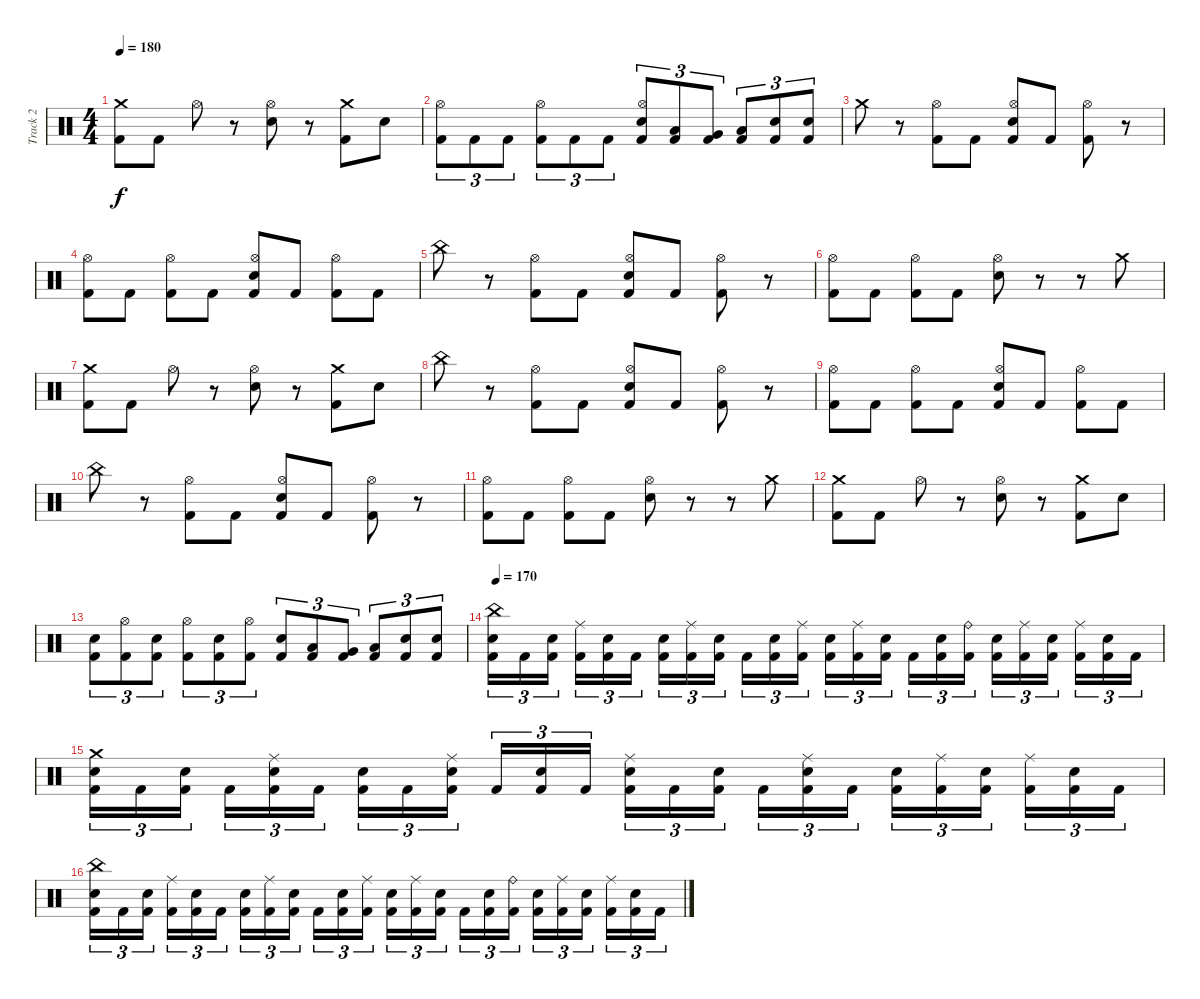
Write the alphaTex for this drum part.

\track ("Track 2" "Track 2") {instrument percussion}
\staff {score}
\articulation defaults
\ts (4 4)
\tempo 180
\clef neutral
\ks c
("Crash medium (hit)" "Kick (hit) 2").8{dy f} "Kick (hit) 2".8 "Hi-Hat (open)".8 r.8 ("Hi-Hat (open)" "Electric Snare (hit)").8 r.8 ("Crash medium (hit)" "Kick (hit) 2").8 "Electric Snare (hit)".8 |
("Hi-Hat (open)" "Kick (hit) 2").8{tu (3 2)} "Kick (hit) 2".8{tu (3 2)} "Kick (hit) 2".8{tu (3 2)} ("Hi-Hat (open)" "Kick (hit) 2").8{tu (3 2)} "Kick (hit) 2".8{tu (3 2)} "Kick (hit) 2".8{tu (3 2)} ("Hi-Hat (open)" "Electric Snare (hit)" "Kick (hit) 2").8{tu (3 2)} ("Low Tom (hit)" "Kick (hit) 2").8{tu (3 2)} ("Very Low Tom (hit)" "Kick (hit) 2").8{tu (3 2)} ("Low Floor Tom (hit)" "Kick (hit) 2").8{tu (3 2)} ("Electric Snare (hit)" "Kick (hit) 2").8{tu (3 2)} ("Electric Snare (hit)" "Kick (hit) 2").8{tu (3 2)} |
"Crash medium (hit)".8 r.8 ("Hi-Hat (open)" "Kick (hit) 2").8 "Kick (hit) 2".8 ("Hi-Hat (open)" "Electric Snare (hit)" "Kick (hit) 2").8 "Kick (hit) 2".8 ("Hi-Hat (open)" "Kick (hit) 2").8 r.8 |
("Hi-Hat (open)" "Kick (hit) 2").8 "Kick (hit) 2".8 ("Hi-Hat (open)" "Kick (hit) 2").8 "Kick (hit) 2".8 ("Hi-Hat (open)" "Electric Snare (hit)" "Kick (hit) 2").8 "Kick (hit) 2".8 ("Hi-Hat (open)" "Kick (hit) 2").8 "Kick (hit) 2".8 |
"China (hit)".8 r.8 ("Hi-Hat (open)" "Kick (hit) 2").8 "Kick (hit) 2".8 ("Hi-Hat (open)" "Electric Snare (hit)" "Kick (hit) 2").8 "Kick (hit) 2".8 ("Hi-Hat (open)" "Kick (hit) 2").8 r.8 |
("Hi-Hat (open)" "Kick (hit) 2").8 "Kick (hit) 2".8 ("Hi-Hat (open)" "Kick (hit) 2").8 "Kick (hit) 2".8 ("Hi-Hat (open)" "Electric Snare (hit)").8 r.8 r.8 "Crash medium (hit)".8 |
("Crash medium (hit)" "Kick (hit) 2").8 "Kick (hit) 2".8 "Hi-Hat (open)".8 r.8 ("Hi-Hat (open)" "Electric Snare (hit)").8 r.8 ("Crash medium (hit)" "Kick (hit) 2").8 "Electric Snare (hit)".8 |
"China (hit)".8 r.8 ("Hi-Hat (open)" "Kick (hit) 2").8 "Kick (hit) 2".8 ("Hi-Hat (open)" "Electric Snare (hit)" "Kick (hit) 2").8 "Kick (hit) 2".8 ("Hi-Hat (open)" "Kick (hit) 2").8 r.8 |
("Hi-Hat (open)" "Kick (hit) 2").8 "Kick (hit) 2".8 ("Hi-Hat (open)" "Kick (hit) 2").8 "Kick (hit) 2".8 ("Hi-Hat (open)" "Electric Snare (hit)" "Kick (hit) 2").8 "Kick (hit) 2".8 ("Hi-Hat (open)" "Kick (hit) 2").8 "Kick (hit) 2".8 |
"China (hit)".8 r.8 ("Hi-Hat (open)" "Kick (hit) 2").8 "Kick (hit) 2".8 ("Hi-Hat (open)" "Electric Snare (hit)" "Kick (hit) 2").8 "Kick (hit) 2".8 ("Hi-Hat (open)" "Kick (hit) 2").8 r.8 |
("Hi-Hat (open)" "Kick (hit) 2").8 "Kick (hit) 2".8 ("Hi-Hat (open)" "Kick (hit) 2").8 "Kick (hit) 2".8 ("Hi-Hat (open)" "Electric Snare (hit)").8 r.8 r.8 "Crash medium (hit)".8 |
("Crash medium (hit)" "Kick (hit) 2").8 "Kick (hit) 2".8 "Hi-Hat (open)".8 r.8 ("Hi-Hat (open)" "Electric Snare (hit)").8 r.8 ("Crash medium (hit)" "Kick (hit) 2").8 "Electric Snare (hit)".8 |
("Electric Snare (hit)" "Kick (hit) 2").8{tu (3 2)} ("Hi-Hat (open)" "Kick (hit) 2").8{tu (3 2)} ("Electric Snare (hit)" "Kick (hit) 2").8{tu (3 2)} ("Hi-Hat (open)" "Kick (hit) 2").8{tu (3 2)} ("Electric Snare (hit)" "Kick (hit) 2").8{tu (3 2)} ("Hi-Hat (open)" "Kick (hit) 2").8{tu (3 2)} ("Electric Snare (hit)" "Kick (hit) 2").8{tu (3 2)} ("Low Tom (hit)" "Kick (hit) 2").8{tu (3 2)} ("Very Low Tom (hit)" "Kick (hit) 2").8{tu (3 2)} ("Low Floor Tom (hit)" "Kick (hit) 2").8{tu (3 2)} ("Electric Snare (hit)" "Kick (hit) 2").8{tu (3 2)} ("Electric Snare (hit)" "Kick (hit) 2").8{tu (3 2)} |
\tempo 170
("China (hit)" "Electric Snare (hit)" "Kick (hit) 2").16{tu (3 2)} "Kick (hit) 2".16{tu (3 2)} ("Electric Snare (hit)" "Kick (hit) 2").16{tu (3 2)} ("Ride (middle)" "Kick (hit) 2").16{tu (3 2)} ("Electric Snare (hit)" "Kick (hit) 2").16{tu (3 2)} "Kick (hit) 2".16{tu (3 2)} ("Electric Snare (hit)" "Kick (hit) 2").16{tu (3 2)} ("Ride (middle)" "Kick (hit) 2").16{tu (3 2)} ("Electric Snare (hit)" "Kick (hit) 2").16{tu (3 2)} "Kick (hit) 2".16{tu (3 2)} ("Electric Snare (hit)" "Kick (hit) 2").16{tu (3 2)} ("Ride (middle)" "Kick (hit) 2").16{tu (3 2)} ("Electric Snare (hit)" "Kick (hit) 2").16{tu (3 2)} ("Ride (middle)" "Kick (hit) 2").16{tu (3 2)} ("Electric Snare (hit)" "Kick (hit) 2").16{tu (3 2)} "Kick (hit) 2".16{tu (3 2)} ("Electric Snare (hit)" "Kick (hit) 2").16{tu (3 2)} ("Ride (bell)" "Kick (hit) 2").16{tu (3 2)} ("Electric Snare (hit)" "Kick (hit) 2").16{tu (3 2)} ("Ride (middle)" "Kick (hit) 2").16{tu (3 2)} ("Electric Snare (hit)" "Kick (hit) 2").16{tu (3 2)} ("Ride (middle)" "Kick (hit) 2").16{tu (3 2)} ("Electric Snare (hit)" "Kick (hit) 2").16{tu (3 2)} "Kick (hit) 2".16{tu (3 2)} |
("Crash medium (hit)" "Electric Snare (hit)" "Kick (hit) 2").16{tu (3 2)} "Kick (hit) 2".16{tu (3 2)} ("Electric Snare (hit)" "Kick (hit) 2").16{tu (3 2)} "Kick (hit) 2".16{tu (3 2)} ("Ride (middle)" "Electric Snare (hit)" "Kick (hit) 2").16{tu (3 2)} "Kick (hit) 2".16{tu (3 2)} ("Electric Snare (hit)" "Kick (hit) 2").16{tu (3 2)} "Kick (hit) 2".16{tu (3 2)} ("Ride (middle)" "Electric Snare (hit)" "Kick (hit) 2").16{tu (3 2)} "Kick (hit) 2".16{tu (3 2)} ("Electric Snare (hit)" "Kick (hit) 2").16{tu (3 2)} "Kick (hit) 2".16{tu (3 2)} ("Ride (middle)" "Electric Snare (hit)" "Kick (hit) 2").16{tu (3 2)} "Kick (hit) 2".16{tu (3 2)} ("Electric Snare (hit)" "Kick (hit) 2").16{tu (3 2)} "Kick (hit) 2".16{tu (3 2)} ("Ride (middle)" "Electric Snare (hit)" "Kick (hit) 2").16{tu (3 2)} "Kick (hit) 2".16{tu (3 2)} ("Electric Snare (hit)" "Kick (hit) 2").16{tu (3 2)} ("Ride (middle)" "Kick (hit) 2").16{tu (3 2)} ("Electric Snare (hit)" "Kick (hit) 2").16{tu (3 2)} ("Ride (middle)" "Kick (hit) 2").16{tu (3 2)} ("Electric Snare (hit)" "Kick (hit) 2").16{tu (3 2)} "Kick (hit) 2".16{tu (3 2)} |
("China (hit)" "Electric Snare (hit)" "Kick (hit) 2").16{tu (3 2)} "Kick (hit) 2".16{tu (3 2)} ("Electric Snare (hit)" "Kick (hit) 2").16{tu (3 2)} ("Ride (middle)" "Kick (hit) 2").16{tu (3 2)} ("Electric Snare (hit)" "Kick (hit) 2").16{tu (3 2)} "Kick (hit) 2".16{tu (3 2)} ("Electric Snare (hit)" "Kick (hit) 2").16{tu (3 2)} ("Ride (middle)" "Kick (hit) 2").16{tu (3 2)} ("Electric Snare (hit)" "Kick (hit) 2").16{tu (3 2)} "Kick (hit) 2".16{tu (3 2)} ("Electric Snare (hit)" "Kick (hit) 2").16{tu (3 2)} ("Ride (middle)" "Kick (hit) 2").16{tu (3 2)} ("Electric Snare (hit)" "Kick (hit) 2").16{tu (3 2)} ("Ride (middle)" "Kick (hit) 2").16{tu (3 2)} ("Electric Snare (hit)" "Kick (hit) 2").16{tu (3 2)} "Kick (hit) 2".16{tu (3 2)} ("Electric Snare (hit)" "Kick (hit) 2").16{tu (3 2)} ("Ride (bell)" "Kick (hit) 2").16{tu (3 2)} ("Electric Snare (hit)" "Kick (hit) 2").16{tu (3 2)} ("Ride (middle)" "Kick (hit) 2").16{tu (3 2)} ("Electric Snare (hit)" "Kick (hit) 2").16{tu (3 2)} ("Ride (middle)" "Kick (hit) 2").16{tu (3 2)} ("Electric Snare (hit)" "Kick (hit) 2").16{tu (3 2)} "Kick (hit) 2".16{tu (3 2)}
